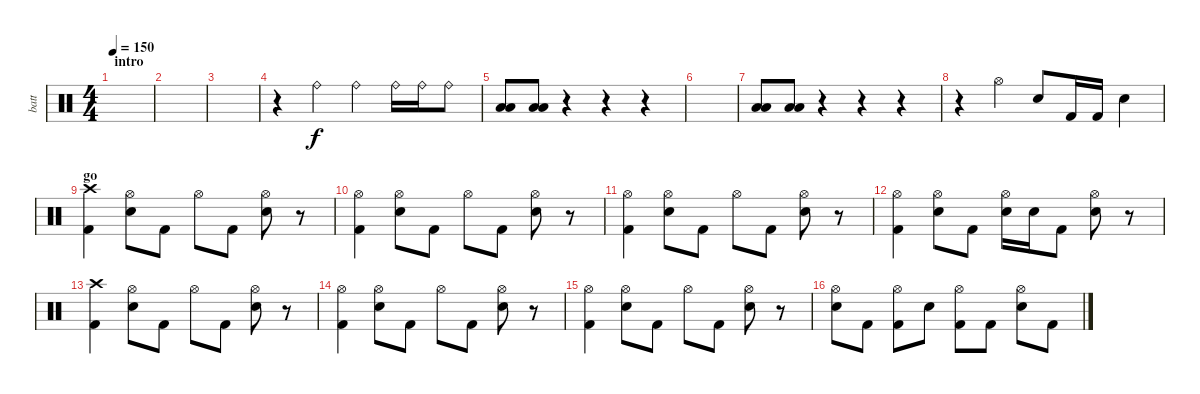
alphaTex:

\track ("batt" "batt") {instrument percussion}
\staff {score}
\articulation defaults
\ts (4 4)
\section ("" "intro")
\tempo 150
\clef neutral
\ks c
|
|
|
r.4 "Ride (bell)".4 "Ride (bell)".4 "Ride (bell)".16 "Ride (bell)".16 "Ride (bell)".8 |
("Low Tom (hit)" "Low Tom (hit)").8 ("Low Tom (hit)" "Low Tom (hit)").8 r.4 r.4 r.4 |
|
("Low Tom (hit)" "Low Tom (hit)").8 ("Low Tom (hit)" "Low Tom (hit)").8 r.4 r.4 r.4 |
r.4 "Hi-Hat (open)".4 "Electric Snare (hit)".8 "Kick (hit) 2".16 "Kick (hit) 2".16 "Electric Snare (hit)".4 |
\section ("" "go")
("Crash high (hit)" "Kick (hit) 2").4 ("Hi-Hat (open)" "Electric Snare (hit)").8 "Kick (hit) 2".8 "Hi-Hat (open)".8 "Kick (hit) 2".8 ("Hi-Hat (open)" "Electric Snare (hit)").8 r.8 |
("Hi-Hat (open)" "Kick (hit) 2").4 ("Hi-Hat (open)" "Electric Snare (hit)").8 "Kick (hit) 2".8 "Hi-Hat (open)".8 "Kick (hit) 2".8 ("Hi-Hat (open)" "Electric Snare (hit)").8 r.8 |
("Hi-Hat (open)" "Kick (hit) 2").4 ("Hi-Hat (open)" "Electric Snare (hit)").8 "Kick (hit) 2".8 "Hi-Hat (open)".8 "Kick (hit) 2".8 ("Hi-Hat (open)" "Electric Snare (hit)").8 r.8 |
("Hi-Hat (open)" "Kick (hit) 2").4 ("Hi-Hat (open)" "Electric Snare (hit)").8 "Kick (hit) 2".8 ("Hi-Hat (open)" "Electric Snare (hit)").16 "Electric Snare (hit)".16 "Kick (hit) 2".8 ("Hi-Hat (open)" "Electric Snare (hit)").8 r.8 |
("Crash high (hit)" "Kick (hit) 2").4 ("Hi-Hat (open)" "Electric Snare (hit)").8 "Kick (hit) 2".8 "Hi-Hat (open)".8 "Kick (hit) 2".8 ("Hi-Hat (open)" "Electric Snare (hit)").8 r.8 |
("Hi-Hat (open)" "Kick (hit) 2").4 ("Hi-Hat (open)" "Electric Snare (hit)").8 "Kick (hit) 2".8 "Hi-Hat (open)".8 "Kick (hit) 2".8 ("Hi-Hat (open)" "Electric Snare (hit)").8 r.8 |
("Hi-Hat (open)" "Kick (hit) 2").4 ("Hi-Hat (open)" "Electric Snare (hit)").8 "Kick (hit) 2".8 "Hi-Hat (open)".8 "Kick (hit) 2".8 ("Hi-Hat (open)" "Electric Snare (hit)").8 r.8 |
("Hi-Hat (open)" "Electric Snare (hit)").8 "Kick (hit) 2".8 ("Hi-Hat (open)" "Kick (hit) 2").8 "Electric Snare (hit)".8 ("Hi-Hat (open)" "Kick (hit) 2").8 "Kick (hit) 2".8 ("Hi-Hat (open)" "Electric Snare (hit)").8 "Kick (hit) 2".8
